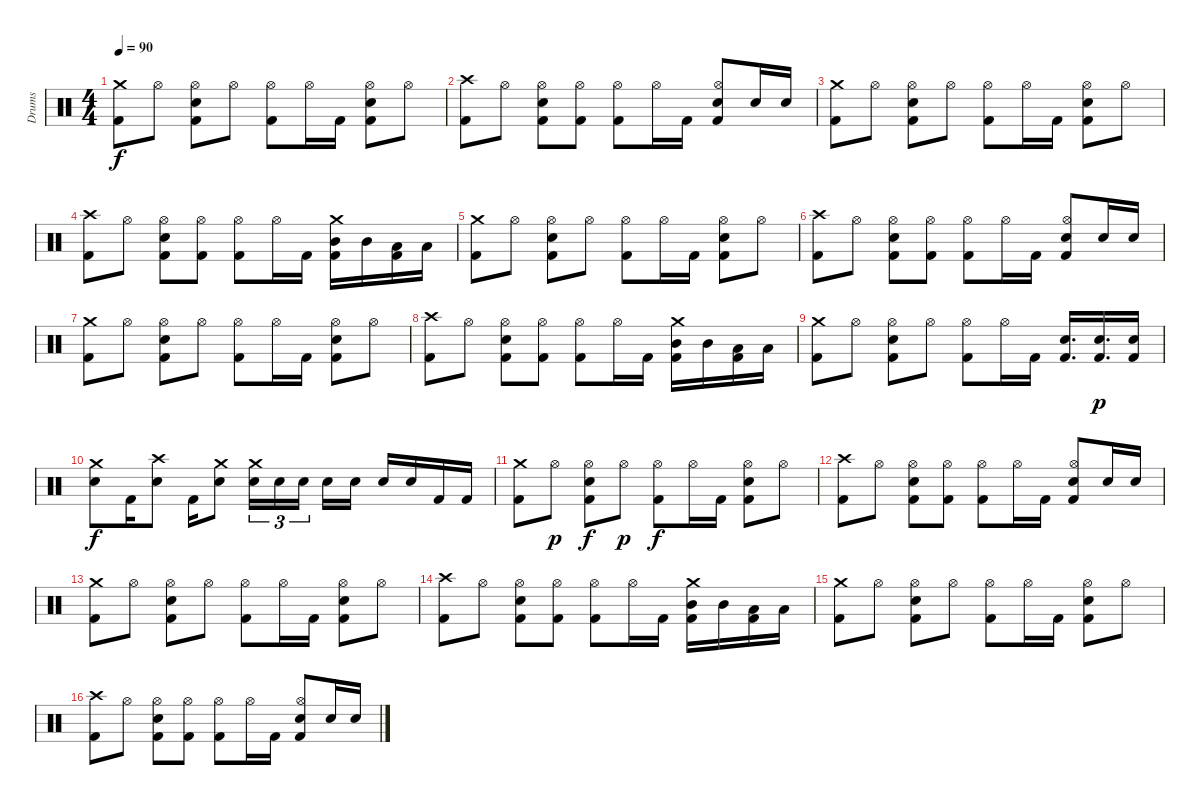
\track ("Drums" "Drums") {instrument percussion}
\staff {score}
\articulation defaults
\ts (4 4)
\tempo 90
\clef neutral
\ks c
("Crash medium (hit)" "Kick (hit) 2").8{dy f} "Hi-Hat (open)".8 ("Hi-Hat (open)" "Electric Snare (hit)" "Kick (hit) 2").8 "Hi-Hat (open)".8 ("Hi-Hat (open)" "Kick (hit) 2").8 "Hi-Hat (open)".16 "Kick (hit) 2".16 ("Hi-Hat (open)" "Electric Snare (hit)" "Kick (hit) 2").8 "Hi-Hat (open)".8 |
("Crash high (hit)" "Kick (hit) 2").8 "Hi-Hat (open)".8 ("Hi-Hat (open)" "Electric Snare (hit)" "Kick (hit) 2").8 ("Hi-Hat (open)" "Kick (hit) 2").8 ("Hi-Hat (open)" "Kick (hit) 2").8 "Hi-Hat (open)".16 "Kick (hit) 2".16 ("Hi-Hat (open)" "Electric Snare (hit)" "Kick (hit) 2").8 "Electric Snare (hit)".16 "Electric Snare (hit)".16 |
("Crash medium (hit)" "Kick (hit) 2").8 "Hi-Hat (open)".8 ("Hi-Hat (open)" "Electric Snare (hit)" "Kick (hit) 2").8 "Hi-Hat (open)".8 ("Hi-Hat (open)" "Kick (hit) 2").8 "Hi-Hat (open)".16 "Kick (hit) 2".16 ("Hi-Hat (open)" "Electric Snare (hit)" "Kick (hit) 2").8 "Hi-Hat (open)".8 |
("Crash high (hit)" "Kick (hit) 2").8 "Hi-Hat (open)".8 ("Hi-Hat (open)" "Electric Snare (hit)" "Kick (hit) 2").8 ("Hi-Hat (open)" "Kick (hit) 2").8 ("Hi-Hat (open)" "Kick (hit) 2").8 "Hi-Hat (open)".16 "Kick (hit) 2".16 ("Crash medium (hit)" "Mid Tom (hit)" "Kick (hit) 2").16 "Mid Tom (hit)".16 ("Low Tom (hit)" "Kick (hit) 2").16 "Low Tom (hit)".16 |
("Crash medium (hit)" "Kick (hit) 2").8 "Hi-Hat (open)".8 ("Hi-Hat (open)" "Electric Snare (hit)" "Kick (hit) 2").8 "Hi-Hat (open)".8 ("Hi-Hat (open)" "Kick (hit) 2").8 "Hi-Hat (open)".16 "Kick (hit) 2".16 ("Hi-Hat (open)" "Electric Snare (hit)" "Kick (hit) 2").8 "Hi-Hat (open)".8 |
("Crash high (hit)" "Kick (hit) 2").8 "Hi-Hat (open)".8 ("Hi-Hat (open)" "Electric Snare (hit)" "Kick (hit) 2").8 ("Hi-Hat (open)" "Kick (hit) 2").8 ("Hi-Hat (open)" "Kick (hit) 2").8 "Hi-Hat (open)".16 "Kick (hit) 2".16 ("Hi-Hat (open)" "Electric Snare (hit)" "Kick (hit) 2").8 "Electric Snare (hit)".16 "Electric Snare (hit)".16 |
("Crash medium (hit)" "Kick (hit) 2").8 "Hi-Hat (open)".8 ("Hi-Hat (open)" "Electric Snare (hit)" "Kick (hit) 2").8 "Hi-Hat (open)".8 ("Hi-Hat (open)" "Kick (hit) 2").8 "Hi-Hat (open)".16 "Kick (hit) 2".16 ("Hi-Hat (open)" "Electric Snare (hit)" "Kick (hit) 2").8 "Hi-Hat (open)".8 |
("Crash high (hit)" "Kick (hit) 2").8 "Hi-Hat (open)".8 ("Hi-Hat (open)" "Electric Snare (hit)" "Kick (hit) 2").8 ("Hi-Hat (open)" "Kick (hit) 2").8 ("Hi-Hat (open)" "Kick (hit) 2").8 "Hi-Hat (open)".16 "Kick (hit) 2".16 ("Crash medium (hit)" "Mid Tom (hit)" "Kick (hit) 2").16 "Mid Tom (hit)".16 ("Low Tom (hit)" "Kick (hit) 2").16 "Low Tom (hit)".16 |
("Crash medium (hit)" "Kick (hit) 2").8 "Hi-Hat (open)".8 ("Hi-Hat (open)" "Electric Snare (hit)" "Kick (hit) 2").8 "Hi-Hat (open)".8 ("Hi-Hat (open)" "Kick (hit) 2").8 "Hi-Hat (open)".16 "Kick (hit) 2".16 ("Electric Snare (hit)" "Kick (hit) 2").16{d} ("Electric Snare (hit)" "Kick (hit) 2").16{d dy p} ("Electric Snare (hit)" "Kick (hit) 2").16 |
("Crash medium (hit)" "Electric Snare (hit)").8{dy f} "Kick (hit) 2".16 ("Crash high (hit)" "Electric Snare (hit)").8 "Kick (hit) 2".16 ("Crash medium (hit)" "Electric Snare (hit)").8 ("Crash medium (hit)" "Electric Snare (hit)").16{tu (3 2)} "Electric Snare (hit)".16{tu (3 2)} "Electric Snare (hit)".16{tu (3 2) beam splitsecondary} "Electric Snare (hit)".16 "Electric Snare (hit)".16 "Electric Snare (hit)".16 "Electric Snare (hit)".16 "Kick (hit) 2".16 "Kick (hit) 2".16 |
("Crash medium (hit)" "Kick (hit) 2").8 "Hi-Hat (open)".8{dy p} ("Hi-Hat (open)" "Electric Snare (hit)" "Kick (hit) 2").8{dy f} "Hi-Hat (open)".8{dy p} ("Hi-Hat (open)" "Kick (hit) 2").8{dy f} "Hi-Hat (open)".16 "Kick (hit) 2".16 ("Hi-Hat (open)" "Electric Snare (hit)" "Kick (hit) 2").8 "Hi-Hat (open)".8 |
("Crash high (hit)" "Kick (hit) 2").8 "Hi-Hat (open)".8 ("Hi-Hat (open)" "Electric Snare (hit)" "Kick (hit) 2").8 ("Hi-Hat (open)" "Kick (hit) 2").8 ("Hi-Hat (open)" "Kick (hit) 2").8 "Hi-Hat (open)".16 "Kick (hit) 2".16 ("Hi-Hat (open)" "Electric Snare (hit)" "Kick (hit) 2").8 "Electric Snare (hit)".16 "Electric Snare (hit)".16 |
("Crash medium (hit)" "Kick (hit) 2").8 "Hi-Hat (open)".8 ("Hi-Hat (open)" "Electric Snare (hit)" "Kick (hit) 2").8 "Hi-Hat (open)".8 ("Hi-Hat (open)" "Kick (hit) 2").8 "Hi-Hat (open)".16 "Kick (hit) 2".16 ("Hi-Hat (open)" "Electric Snare (hit)" "Kick (hit) 2").8 "Hi-Hat (open)".8 |
("Crash high (hit)" "Kick (hit) 2").8 "Hi-Hat (open)".8 ("Hi-Hat (open)" "Electric Snare (hit)" "Kick (hit) 2").8 ("Hi-Hat (open)" "Kick (hit) 2").8 ("Hi-Hat (open)" "Kick (hit) 2").8 "Hi-Hat (open)".16 "Kick (hit) 2".16 ("Crash medium (hit)" "Mid Tom (hit)" "Kick (hit) 2").16 "Mid Tom (hit)".16 ("Low Tom (hit)" "Kick (hit) 2").16 "Low Tom (hit)".16 |
("Crash medium (hit)" "Kick (hit) 2").8 "Hi-Hat (open)".8 ("Hi-Hat (open)" "Electric Snare (hit)" "Kick (hit) 2").8 "Hi-Hat (open)".8 ("Hi-Hat (open)" "Kick (hit) 2").8 "Hi-Hat (open)".16 "Kick (hit) 2".16 ("Hi-Hat (open)" "Electric Snare (hit)" "Kick (hit) 2").8 "Hi-Hat (open)".8 |
("Crash high (hit)" "Kick (hit) 2").8 "Hi-Hat (open)".8 ("Hi-Hat (open)" "Electric Snare (hit)" "Kick (hit) 2").8 ("Hi-Hat (open)" "Kick (hit) 2").8 ("Hi-Hat (open)" "Kick (hit) 2").8 "Hi-Hat (open)".16 "Kick (hit) 2".16 ("Hi-Hat (open)" "Electric Snare (hit)" "Kick (hit) 2").8 "Electric Snare (hit)".16 "Electric Snare (hit)".16
